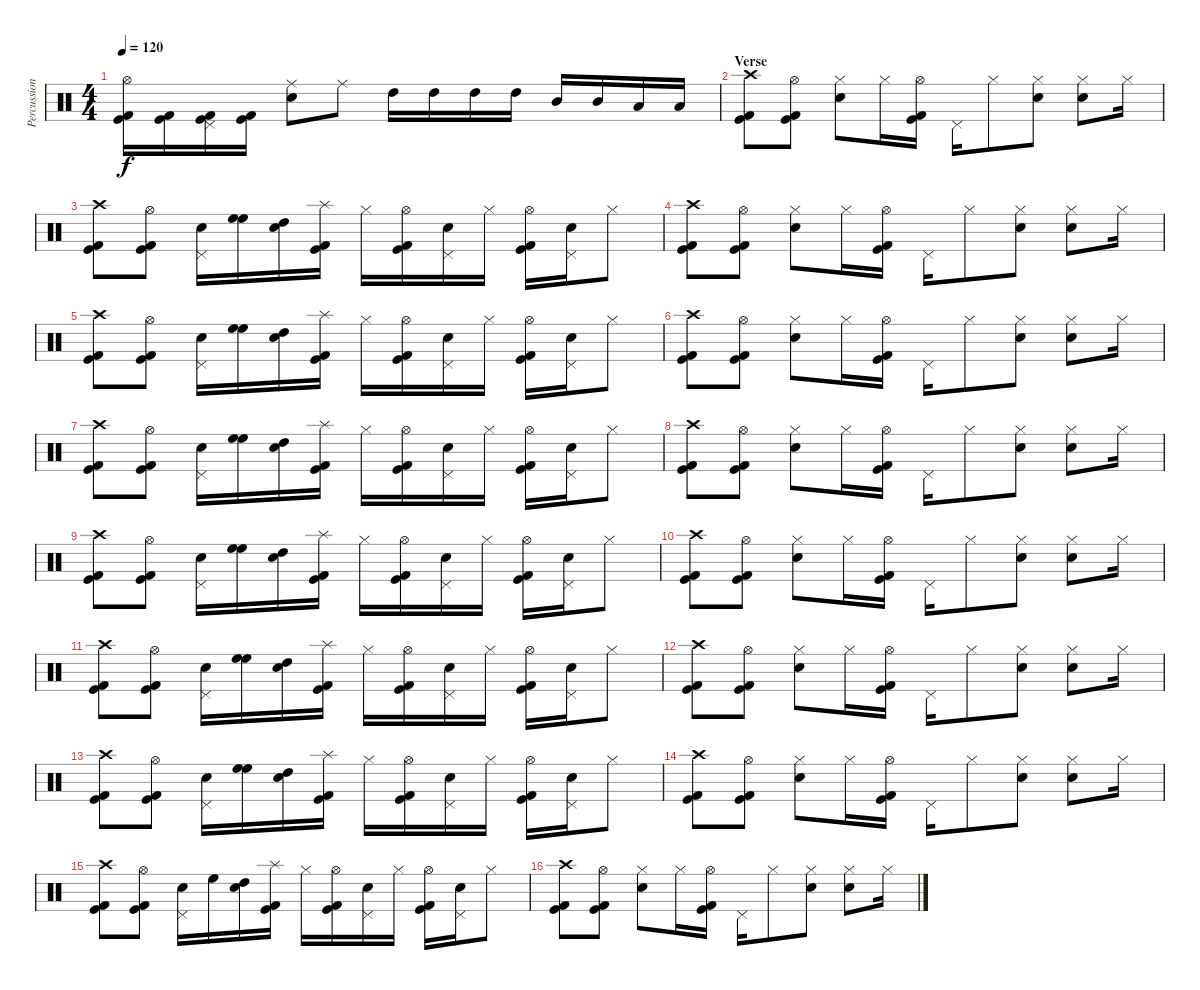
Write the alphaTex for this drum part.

\track ("Percussion" "Percussion") {instrument percussion}
\staff {score}
\articulation defaults
\ts (4 4)
\tempo 120
\clef neutral
\ks c
("Hi-Hat (open)" "Kick (hit) 2" "Kick (hit)").16{dy f} ("Kick (hit) 2" "Kick (hit)").16 ("Pedal Hi-Hat (hit)" "Kick (hit) 2" "Kick (hit)").16 ("Kick (hit) 2" "Kick (hit)").16 ("Ride (middle)" "Snare (hit) 2").8 "Ride (middle)".8 "High Tom (hit)".16 "High Tom (hit)".16 "High Tom (hit)".16 "High Tom (hit)".16 "Mid Tom (hit)".16 "Mid Tom (hit)".16 "Low Tom (hit)".16 "Low Tom (hit)".16 |
\section ("" "Verse")
("Crash high (hit)" "Kick (hit) 2" "Kick (hit)").8 ("Hi-Hat (open)" "Kick (hit) 2" "Kick (hit)").8 ("Hi-Hat (closed)" "Snare (hit) 2").8 "Hi-Hat (closed)".16 ("Hi-Hat (open)" "Kick (hit) 2" "Kick (hit)").16 "Pedal Hi-Hat (hit)".16 "Hi-Hat (closed)".8 ("Hi-Hat (closed)" "Snare (hit) 2").8 ("Hi-Hat (closed)" "Snare (hit) 2").8 "Hi-Hat (closed)".16 |
("Crash high (hit)" "Kick (hit) 2" "Kick (hit)").8 ("Hi-Hat (open)" "Kick (hit) 2" "Kick (hit)").8 ("Pedal Hi-Hat (hit)" "Snare (hit) 2").16 ("High Floor Tom (hit)" "High Floor Tom (hit)").16 ("Snare (hit) 2" "High Tom (hit)").16 ("Splash (hit)" "Kick (hit) 2" "Kick (hit)").16 "Hi-Hat (closed)".16 ("Hi-Hat (open)" "Kick (hit) 2" "Kick (hit)").16 ("Pedal Hi-Hat (hit)" "Snare (hit) 2").16 "Hi-Hat (closed)".16 ("Hi-Hat (open)" "Kick (hit) 2" "Kick (hit)").16 ("Pedal Hi-Hat (hit)" "Snare (hit) 2").16 "Hi-Hat (closed)".8 |
("Crash high (hit)" "Kick (hit) 2" "Kick (hit)").8 ("Hi-Hat (open)" "Kick (hit) 2" "Kick (hit)").8 ("Hi-Hat (closed)" "Snare (hit) 2").8 "Hi-Hat (closed)".16 ("Hi-Hat (open)" "Kick (hit) 2" "Kick (hit)").16 "Pedal Hi-Hat (hit)".16 "Hi-Hat (closed)".8 ("Hi-Hat (closed)" "Snare (hit) 2").8 ("Hi-Hat (closed)" "Snare (hit) 2").8 "Hi-Hat (closed)".16 |
("Crash high (hit)" "Kick (hit) 2" "Kick (hit)").8 ("Hi-Hat (open)" "Kick (hit) 2" "Kick (hit)").8 ("Pedal Hi-Hat (hit)" "Snare (hit) 2").16 ("High Floor Tom (hit)" "High Floor Tom (hit)").16 ("Snare (hit) 2" "High Tom (hit)").16 ("Splash (hit)" "Kick (hit) 2" "Kick (hit)").16 "Hi-Hat (closed)".16 ("Hi-Hat (open)" "Kick (hit) 2" "Kick (hit)").16 ("Pedal Hi-Hat (hit)" "Snare (hit) 2").16 "Hi-Hat (closed)".16 ("Hi-Hat (open)" "Kick (hit) 2" "Kick (hit)").16 ("Pedal Hi-Hat (hit)" "Snare (hit) 2").16 "Hi-Hat (closed)".8 |
("Crash high (hit)" "Kick (hit) 2" "Kick (hit)").8 ("Hi-Hat (open)" "Kick (hit) 2" "Kick (hit)").8 ("Hi-Hat (closed)" "Snare (hit) 2").8 "Hi-Hat (closed)".16 ("Hi-Hat (open)" "Kick (hit) 2" "Kick (hit)").16 "Pedal Hi-Hat (hit)".16 "Hi-Hat (closed)".8 ("Hi-Hat (closed)" "Snare (hit) 2").8 ("Hi-Hat (closed)" "Snare (hit) 2").8 "Hi-Hat (closed)".16 |
("Crash high (hit)" "Kick (hit) 2" "Kick (hit)").8 ("Hi-Hat (open)" "Kick (hit) 2" "Kick (hit)").8 ("Pedal Hi-Hat (hit)" "Snare (hit) 2").16 ("High Floor Tom (hit)" "High Floor Tom (hit)").16 ("Snare (hit) 2" "High Tom (hit)").16 ("Splash (hit)" "Kick (hit) 2" "Kick (hit)").16 "Hi-Hat (closed)".16 ("Hi-Hat (open)" "Kick (hit) 2" "Kick (hit)").16 ("Pedal Hi-Hat (hit)" "Snare (hit) 2").16 "Hi-Hat (closed)".16 ("Hi-Hat (open)" "Kick (hit) 2" "Kick (hit)").16 ("Pedal Hi-Hat (hit)" "Snare (hit) 2").16 "Hi-Hat (closed)".8 |
("Crash high (hit)" "Kick (hit) 2" "Kick (hit)").8 ("Hi-Hat (open)" "Kick (hit) 2" "Kick (hit)").8 ("Hi-Hat (closed)" "Snare (hit) 2").8 "Hi-Hat (closed)".16 ("Hi-Hat (open)" "Kick (hit) 2" "Kick (hit)").16 "Pedal Hi-Hat (hit)".16 "Hi-Hat (closed)".8 ("Hi-Hat (closed)" "Snare (hit) 2").8 ("Hi-Hat (closed)" "Snare (hit) 2").8 "Hi-Hat (closed)".16 |
("Crash high (hit)" "Kick (hit) 2" "Kick (hit)").8 ("Hi-Hat (open)" "Kick (hit) 2" "Kick (hit)").8 ("Pedal Hi-Hat (hit)" "Snare (hit) 2").16 ("High Floor Tom (hit)" "High Floor Tom (hit)").16 ("Snare (hit) 2" "High Tom (hit)").16 ("Splash (hit)" "Kick (hit) 2" "Kick (hit)").16 "Hi-Hat (closed)".16 ("Hi-Hat (open)" "Kick (hit) 2" "Kick (hit)").16 ("Pedal Hi-Hat (hit)" "Snare (hit) 2").16 "Hi-Hat (closed)".16 ("Hi-Hat (open)" "Kick (hit) 2" "Kick (hit)").16 ("Pedal Hi-Hat (hit)" "Snare (hit) 2").16 "Hi-Hat (closed)".8 |
("Crash high (hit)" "Kick (hit) 2" "Kick (hit)").8 ("Hi-Hat (open)" "Kick (hit) 2" "Kick (hit)").8 ("Hi-Hat (closed)" "Snare (hit) 2").8 "Hi-Hat (closed)".16 ("Hi-Hat (open)" "Kick (hit) 2" "Kick (hit)").16 "Pedal Hi-Hat (hit)".16 "Hi-Hat (closed)".8 ("Hi-Hat (closed)" "Snare (hit) 2").8 ("Hi-Hat (closed)" "Snare (hit) 2").8 "Hi-Hat (closed)".16 |
("Crash high (hit)" "Kick (hit) 2" "Kick (hit)").8 ("Hi-Hat (open)" "Kick (hit) 2" "Kick (hit)").8 ("Pedal Hi-Hat (hit)" "Snare (hit) 2").16 ("High Floor Tom (hit)" "High Floor Tom (hit)").16 ("Snare (hit) 2" "High Tom (hit)").16 ("Splash (hit)" "Kick (hit) 2" "Kick (hit)").16 "Hi-Hat (closed)".16 ("Hi-Hat (open)" "Kick (hit) 2" "Kick (hit)").16 ("Pedal Hi-Hat (hit)" "Snare (hit) 2").16 "Hi-Hat (closed)".16 ("Hi-Hat (open)" "Kick (hit) 2" "Kick (hit)").16 ("Pedal Hi-Hat (hit)" "Snare (hit) 2").16 "Hi-Hat (closed)".8 |
("Crash high (hit)" "Kick (hit) 2" "Kick (hit)").8 ("Hi-Hat (open)" "Kick (hit) 2" "Kick (hit)").8 ("Hi-Hat (closed)" "Snare (hit) 2").8 "Hi-Hat (closed)".16 ("Hi-Hat (open)" "Kick (hit) 2" "Kick (hit)").16 "Pedal Hi-Hat (hit)".16 "Hi-Hat (closed)".8 ("Hi-Hat (closed)" "Snare (hit) 2").8 ("Hi-Hat (closed)" "Snare (hit) 2").8 "Hi-Hat (closed)".16 |
("Crash high (hit)" "Kick (hit) 2" "Kick (hit)").8 ("Hi-Hat (open)" "Kick (hit) 2" "Kick (hit)").8 ("Pedal Hi-Hat (hit)" "Snare (hit) 2").16 ("High Floor Tom (hit)" "High Floor Tom (hit)").16 ("Snare (hit) 2" "High Tom (hit)").16 ("Splash (hit)" "Kick (hit) 2" "Kick (hit)").16 "Hi-Hat (closed)".16 ("Hi-Hat (open)" "Kick (hit) 2" "Kick (hit)").16 ("Pedal Hi-Hat (hit)" "Snare (hit) 2").16 "Hi-Hat (closed)".16 ("Hi-Hat (open)" "Kick (hit) 2" "Kick (hit)").16 ("Pedal Hi-Hat (hit)" "Snare (hit) 2").16 "Hi-Hat (closed)".8 |
("Crash high (hit)" "Kick (hit) 2" "Kick (hit)").8 ("Hi-Hat (open)" "Kick (hit) 2" "Kick (hit)").8 ("Hi-Hat (closed)" "Snare (hit) 2").8 "Hi-Hat (closed)".16 ("Hi-Hat (open)" "Kick (hit) 2" "Kick (hit)").16 "Pedal Hi-Hat (hit)".16 "Hi-Hat (closed)".8 ("Hi-Hat (closed)" "Snare (hit) 2").8 ("Hi-Hat (closed)" "Snare (hit) 2").8 "Hi-Hat (closed)".16 |
("Crash high (hit)" "Kick (hit) 2" "Kick (hit)").8 ("Hi-Hat (open)" "Kick (hit) 2" "Kick (hit)").8 ("Pedal Hi-Hat (hit)" "Snare (hit) 2").16 "High Floor Tom (hit)".16 ("Snare (hit) 2" "High Tom (hit)").16 ("Splash (hit)" "Kick (hit) 2" "Kick (hit)").16 "Hi-Hat (closed)".16 ("Hi-Hat (open)" "Kick (hit) 2" "Kick (hit)").16 ("Pedal Hi-Hat (hit)" "Snare (hit) 2").16 "Hi-Hat (closed)".16 ("Hi-Hat (open)" "Kick (hit) 2" "Kick (hit)").16 ("Pedal Hi-Hat (hit)" "Snare (hit) 2").16 "Hi-Hat (closed)".8 |
("Crash high (hit)" "Kick (hit) 2" "Kick (hit)").8 ("Hi-Hat (open)" "Kick (hit) 2" "Kick (hit)").8 ("Hi-Hat (closed)" "Snare (hit) 2").8 "Hi-Hat (closed)".16 ("Hi-Hat (open)" "Kick (hit) 2" "Kick (hit)").16 "Pedal Hi-Hat (hit)".16 "Hi-Hat (closed)".8 ("Hi-Hat (closed)" "Snare (hit) 2").8 ("Hi-Hat (closed)" "Snare (hit) 2").8 "Hi-Hat (closed)".16
